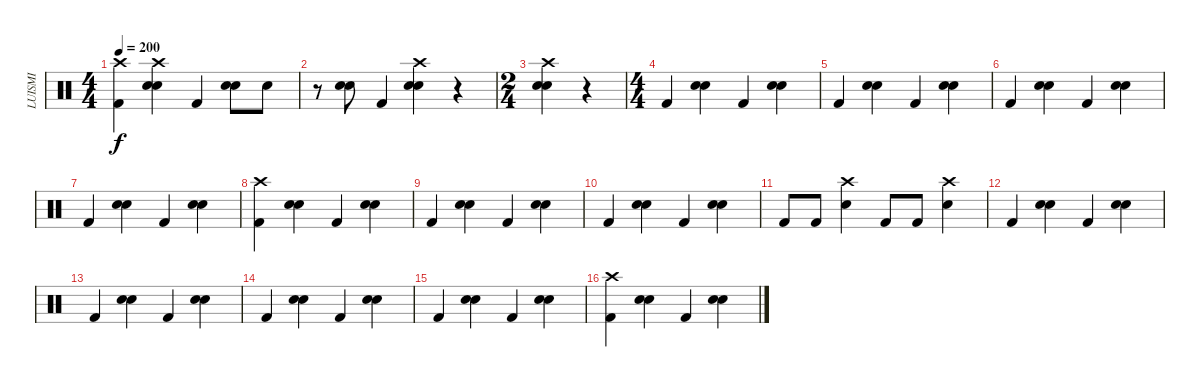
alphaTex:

\track ("LUISMI" "LUISMI") {instrument percussion}
\staff {score}
\articulation defaults
\ts (4 4)
\tempo 200
\clef neutral
\ks c
("Crash high (hit)" "Kick (hit) 2").4{dy f} ("Crash high (hit)" "Electric Snare (hit)" "Snare (hit) 2").4 "Kick (hit) 2".4 ("Electric Snare (hit)" "Snare (hit) 2").8 "Snare (hit) 2".8 |
r.8 ("Electric Snare (hit)" "Snare (hit) 2").8 "Kick (hit) 2".4 ("Crash high (hit)" "Electric Snare (hit)" "Snare (hit) 2").4 r.4 |
\ts (2 4)
("Crash high (hit)" "Electric Snare (hit)" "Snare (hit) 2").4 r.4 |
\ts (4 4)
"Kick (hit) 2".4 ("Electric Snare (hit)" "Snare (hit) 2").4 "Kick (hit) 2".4 ("Electric Snare (hit)" "Snare (hit) 2").4 |
"Kick (hit) 2".4 ("Electric Snare (hit)" "Snare (hit) 2").4 "Kick (hit) 2".4 ("Electric Snare (hit)" "Snare (hit) 2").4 |
"Kick (hit) 2".4 ("Snare (hit) 2" "Electric Snare (hit)").4 "Kick (hit) 2".4 ("Electric Snare (hit)" "Snare (hit) 2").4 |
"Kick (hit) 2".4 ("Electric Snare (hit)" "Snare (hit) 2").4 "Kick (hit) 2".4 ("Electric Snare (hit)" "Snare (hit) 2").4 |
("Crash high (hit)" "Kick (hit) 2").4 ("Electric Snare (hit)" "Snare (hit) 2").4 "Kick (hit) 2".4 ("Electric Snare (hit)" "Snare (hit) 2").4 |
"Kick (hit) 2".4 ("Electric Snare (hit)" "Snare (hit) 2").4 "Kick (hit) 2".4 ("Electric Snare (hit)" "Snare (hit) 2").4 |
"Kick (hit) 2".4 ("Snare (hit) 2" "Electric Snare (hit)").4 "Kick (hit) 2".4 ("Electric Snare (hit)" "Snare (hit) 2").4 |
"Kick (hit) 2".8 "Kick (hit) 2".8 ("Crash high (hit)" "Electric Snare (hit)").4 "Kick (hit) 2".8 "Kick (hit) 2".8 ("Crash high (hit)" "Electric Snare (hit)").4 |
"Kick (hit) 2".4 ("Electric Snare (hit)" "Snare (hit) 2").4 "Kick (hit) 2".4 ("Electric Snare (hit)" "Snare (hit) 2").4 |
"Kick (hit) 2".4 ("Electric Snare (hit)" "Snare (hit) 2").4 "Kick (hit) 2".4 ("Electric Snare (hit)" "Snare (hit) 2").4 |
"Kick (hit) 2".4 ("Snare (hit) 2" "Electric Snare (hit)").4 "Kick (hit) 2".4 ("Electric Snare (hit)" "Snare (hit) 2").4 |
"Kick (hit) 2".4 ("Electric Snare (hit)" "Snare (hit) 2").4 "Kick (hit) 2".4 ("Electric Snare (hit)" "Snare (hit) 2").4 |
("Crash high (hit)" "Kick (hit) 2").4 ("Electric Snare (hit)" "Snare (hit) 2").4 "Kick (hit) 2".4 ("Electric Snare (hit)" "Snare (hit) 2").4
